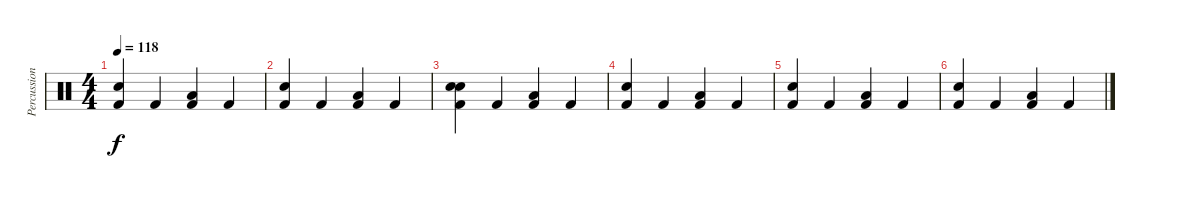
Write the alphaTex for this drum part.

\track ("Percussion" "Percussion") {instrument percussion}
\staff {score}
\articulation defaults
\ts (4 4)
\tempo 118
\clef neutral
\ks c
("Electric Snare (hit)" "Kick (hit) 2").4{dy f} "Kick (hit) 2".4 ("Low Floor Tom (hit)" "Kick (hit) 2").4 "Kick (hit) 2".4 |
("Electric Snare (hit)" "Kick (hit) 2").4 "Kick (hit) 2".4 ("Low Floor Tom (hit)" "Kick (hit) 2").4 "Kick (hit) 2".4 |
("Snare (hit) 2" "Electric Snare (hit)" "Kick (hit) 2").4 "Kick (hit) 2".4 ("Low Floor Tom (hit)" "Kick (hit) 2").4 "Kick (hit) 2".4 |
("Electric Snare (hit)" "Kick (hit) 2").4 "Kick (hit) 2".4 ("Low Floor Tom (hit)" "Kick (hit) 2").4 "Kick (hit) 2".4 |
("Electric Snare (hit)" "Kick (hit) 2").4 "Kick (hit) 2".4 ("Low Floor Tom (hit)" "Kick (hit) 2").4 "Kick (hit) 2".4 |
("Electric Snare (hit)" "Kick (hit) 2").4 "Kick (hit) 2".4 ("Low Floor Tom (hit)" "Kick (hit) 2").4 "Kick (hit) 2".4
